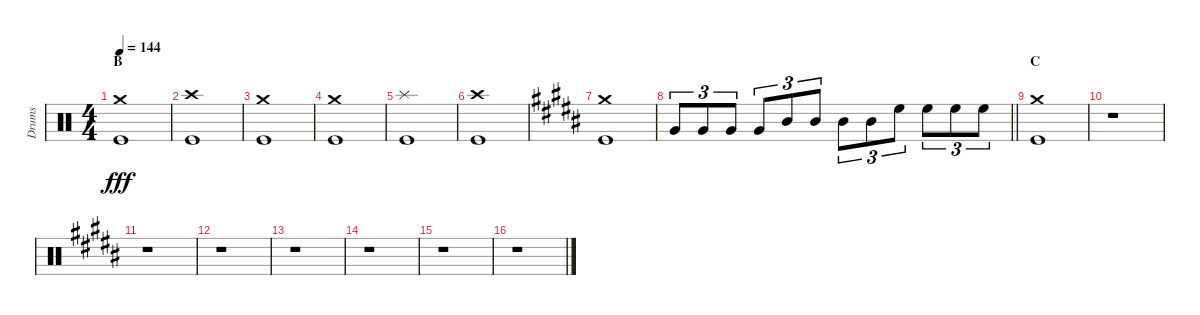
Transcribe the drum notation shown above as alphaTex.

\track ("Drums" "Drums") {instrument percussion}
\staff {score}
\articulation defaults
\ts (4 4)
\section ("" "B")
\tempo 144
\clef neutral
\ks c
("Crash medium (hit)" "Kick (hit)").1{dy fff} |
("Crash high (hit)" "Kick (hit)").1 |
("Crash medium (hit)" "Kick (hit)").1 |
("Crash medium (hit)" "Kick (hit)").1 |
("Splash (hit)" "Kick (hit)").1 |
("Crash high (hit)" "Kick (hit)").1 |
\ks b
("Crash medium (hit)" "Kick (hit)").1 |
\barLineRight lightlight "Very Low Tom (hit)".8{tu (3 2)} "Very Low Tom (hit)".8{tu (3 2)} "Very Low Tom (hit)".8{tu (3 2)} "Very Low Tom (hit)".8{tu (3 2)} "Mid Tom (hit)".8{tu (3 2)} "Mid Tom (hit)".8{tu (3 2)} "Mid Tom (hit)".8{tu (3 2)} "Mid Tom (hit)".8{tu (3 2)} "High Floor Tom (hit)".8{tu (3 2)} "High Floor Tom (hit)".8{tu (3 2)} "High Floor Tom (hit)".8{tu (3 2)} "High Floor Tom (hit)".8{tu (3 2)}
|
\section ("" "C")
("Crash medium (hit)" "Kick (hit)").1 |
r.1 |
r.1 |
r.1 |
r.1 |
r.1 |
r.1 |
r.1
